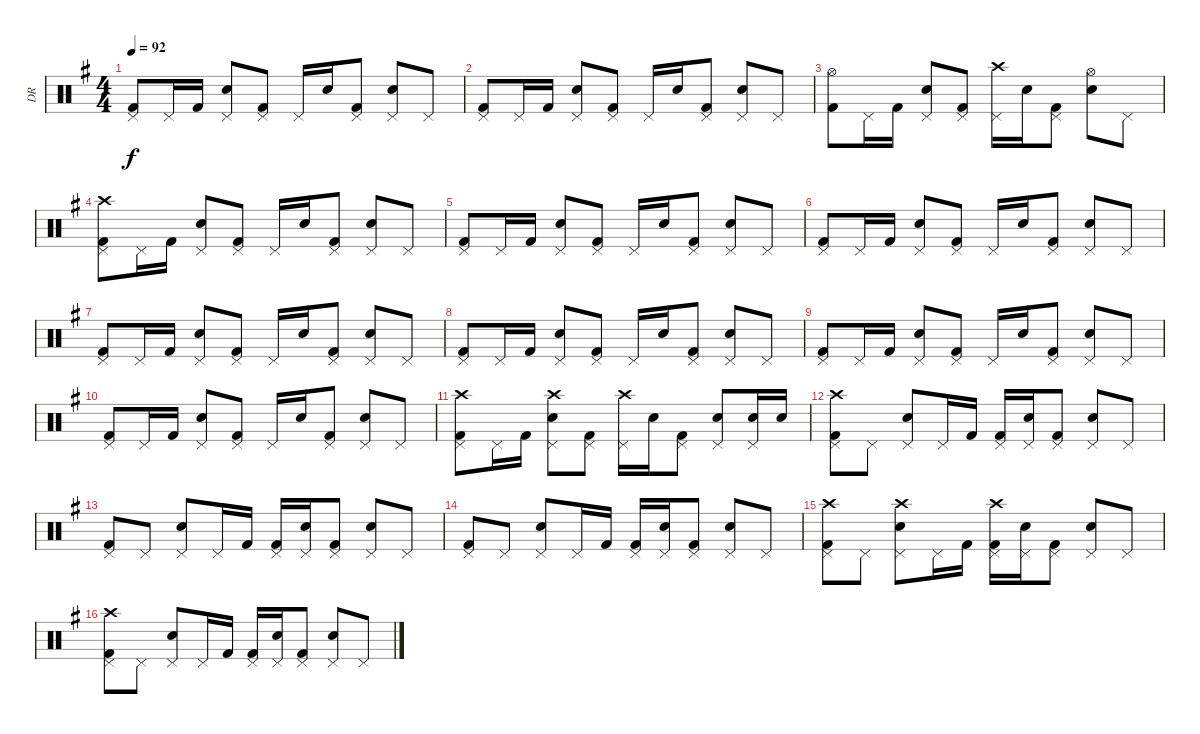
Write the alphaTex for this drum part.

\track ("DR" "DR") {instrument percussion}
\staff {score}
\articulation defaults
\ts (4 4)
\tempo 92
\clef neutral
\ks g
("Pedal Hi-Hat (hit)" "Kick (hit) 2").8{dy f} "Pedal Hi-Hat (hit)".16 "Kick (hit) 2".16 ("Pedal Hi-Hat (hit)" "Electric Snare (hit)").8 ("Pedal Hi-Hat (hit)" "Kick (hit) 2").8 "Pedal Hi-Hat (hit)".16 "Electric Snare (hit)".16 ("Pedal Hi-Hat (hit)" "Kick (hit) 2").8 ("Pedal Hi-Hat (hit)" "Electric Snare (hit)").8 "Pedal Hi-Hat (hit)".8 |
("Pedal Hi-Hat (hit)" "Kick (hit) 2").8 "Pedal Hi-Hat (hit)".16 "Kick (hit) 2".16 ("Pedal Hi-Hat (hit)" "Electric Snare (hit)").8 ("Pedal Hi-Hat (hit)" "Kick (hit) 2").8 "Pedal Hi-Hat (hit)".16 "Electric Snare (hit)".16 ("Pedal Hi-Hat (hit)" "Kick (hit) 2").8 ("Pedal Hi-Hat (hit)" "Electric Snare (hit)").8 "Pedal Hi-Hat (hit)".8 |
("Hi-Hat (open)" "Kick (hit) 2").8 "Pedal Hi-Hat (hit)".16 "Kick (hit) 2".16 ("Pedal Hi-Hat (hit)" "Electric Snare (hit)").8 ("Pedal Hi-Hat (hit)" "Kick (hit) 2").8 ("Crash high (hit)" "Pedal Hi-Hat (hit)").16 "Electric Snare (hit)".16 ("Pedal Hi-Hat (hit)" "Kick (hit) 2").8 ("Hi-Hat (open)" "Electric Snare (hit)").8 "Pedal Hi-Hat (hit)".8 |
("Crash high (hit)" "Pedal Hi-Hat (hit)" "Kick (hit) 2").8 "Pedal Hi-Hat (hit)".16 "Kick (hit) 2".16 ("Pedal Hi-Hat (hit)" "Electric Snare (hit)").8 ("Pedal Hi-Hat (hit)" "Kick (hit) 2").8 "Pedal Hi-Hat (hit)".16 "Electric Snare (hit)".16 ("Pedal Hi-Hat (hit)" "Kick (hit) 2").8 ("Pedal Hi-Hat (hit)" "Electric Snare (hit)").8 "Pedal Hi-Hat (hit)".8 |
("Pedal Hi-Hat (hit)" "Kick (hit) 2").8 "Pedal Hi-Hat (hit)".16 "Kick (hit) 2".16 ("Pedal Hi-Hat (hit)" "Electric Snare (hit)").8 ("Pedal Hi-Hat (hit)" "Kick (hit) 2").8 "Pedal Hi-Hat (hit)".16 "Electric Snare (hit)".16 ("Pedal Hi-Hat (hit)" "Kick (hit) 2").8 ("Pedal Hi-Hat (hit)" "Electric Snare (hit)").8 "Pedal Hi-Hat (hit)".8 |
("Pedal Hi-Hat (hit)" "Kick (hit) 2").8 "Pedal Hi-Hat (hit)".16 "Kick (hit) 2".16 ("Pedal Hi-Hat (hit)" "Electric Snare (hit)").8 ("Pedal Hi-Hat (hit)" "Kick (hit) 2").8 "Pedal Hi-Hat (hit)".16 "Electric Snare (hit)".16 ("Pedal Hi-Hat (hit)" "Kick (hit) 2").8 ("Pedal Hi-Hat (hit)" "Electric Snare (hit)").8 "Pedal Hi-Hat (hit)".8 |
("Pedal Hi-Hat (hit)" "Kick (hit) 2").8 "Pedal Hi-Hat (hit)".16 "Kick (hit) 2".16 ("Pedal Hi-Hat (hit)" "Electric Snare (hit)").8 ("Pedal Hi-Hat (hit)" "Kick (hit) 2").8 "Pedal Hi-Hat (hit)".16 "Electric Snare (hit)".16 ("Pedal Hi-Hat (hit)" "Kick (hit) 2").8 ("Pedal Hi-Hat (hit)" "Electric Snare (hit)").8 "Pedal Hi-Hat (hit)".8 |
("Pedal Hi-Hat (hit)" "Kick (hit) 2").8 "Pedal Hi-Hat (hit)".16 "Kick (hit) 2".16 ("Pedal Hi-Hat (hit)" "Electric Snare (hit)").8 ("Pedal Hi-Hat (hit)" "Kick (hit) 2").8 "Pedal Hi-Hat (hit)".16 "Electric Snare (hit)".16 ("Pedal Hi-Hat (hit)" "Kick (hit) 2").8 ("Pedal Hi-Hat (hit)" "Electric Snare (hit)").8 "Pedal Hi-Hat (hit)".8 |
("Pedal Hi-Hat (hit)" "Kick (hit) 2").8 "Pedal Hi-Hat (hit)".16 "Kick (hit) 2".16 ("Pedal Hi-Hat (hit)" "Electric Snare (hit)").8 ("Pedal Hi-Hat (hit)" "Kick (hit) 2").8 "Pedal Hi-Hat (hit)".16 "Electric Snare (hit)".16 ("Pedal Hi-Hat (hit)" "Kick (hit) 2").8 ("Pedal Hi-Hat (hit)" "Electric Snare (hit)").8 "Pedal Hi-Hat (hit)".8 |
("Pedal Hi-Hat (hit)" "Kick (hit) 2").8 "Pedal Hi-Hat (hit)".16 "Kick (hit) 2".16 ("Pedal Hi-Hat (hit)" "Electric Snare (hit)").8 ("Pedal Hi-Hat (hit)" "Kick (hit) 2").8 "Pedal Hi-Hat (hit)".16 "Electric Snare (hit)".16 ("Pedal Hi-Hat (hit)" "Kick (hit) 2").8 ("Pedal Hi-Hat (hit)" "Electric Snare (hit)").8 "Pedal Hi-Hat (hit)".8 |
("Crash high (hit)" "Pedal Hi-Hat (hit)" "Kick (hit) 2").8 "Pedal Hi-Hat (hit)".16 "Kick (hit) 2".16 ("Crash high (hit)" "Pedal Hi-Hat (hit)" "Electric Snare (hit)").8 ("Pedal Hi-Hat (hit)" "Kick (hit) 2").8 ("Crash high (hit)" "Pedal Hi-Hat (hit)").16 "Electric Snare (hit)".16 ("Pedal Hi-Hat (hit)" "Kick (hit) 2").8 ("Pedal Hi-Hat (hit)" "Electric Snare (hit)").8 ("Pedal Hi-Hat (hit)" "Electric Snare (hit)").16 "Electric Snare (hit)".16 |
("Crash high (hit)" "Pedal Hi-Hat (hit)" "Kick (hit) 2").8 "Pedal Hi-Hat (hit)".8 ("Pedal Hi-Hat (hit)" "Electric Snare (hit)").8 "Pedal Hi-Hat (hit)".16 "Kick (hit) 2".16 ("Pedal Hi-Hat (hit)" "Kick (hit) 2").16 ("Pedal Hi-Hat (hit)" "Electric Snare (hit)").16 ("Pedal Hi-Hat (hit)" "Kick (hit) 2").8 ("Pedal Hi-Hat (hit)" "Electric Snare (hit)").8 "Pedal Hi-Hat (hit)".8 |
("Pedal Hi-Hat (hit)" "Kick (hit) 2").8 "Pedal Hi-Hat (hit)".8 ("Pedal Hi-Hat (hit)" "Electric Snare (hit)").8 "Pedal Hi-Hat (hit)".16 "Kick (hit) 2".16 ("Pedal Hi-Hat (hit)" "Kick (hit) 2").16 ("Pedal Hi-Hat (hit)" "Electric Snare (hit)").16 ("Pedal Hi-Hat (hit)" "Kick (hit) 2").8 ("Pedal Hi-Hat (hit)" "Electric Snare (hit)").8 "Pedal Hi-Hat (hit)".8 |
("Pedal Hi-Hat (hit)" "Kick (hit) 2").8 "Pedal Hi-Hat (hit)".8 ("Pedal Hi-Hat (hit)" "Electric Snare (hit)").8 "Pedal Hi-Hat (hit)".16 "Kick (hit) 2".16 ("Pedal Hi-Hat (hit)" "Kick (hit) 2").16 ("Pedal Hi-Hat (hit)" "Electric Snare (hit)").16 ("Pedal Hi-Hat (hit)" "Kick (hit) 2").8 ("Pedal Hi-Hat (hit)" "Electric Snare (hit)").8 "Pedal Hi-Hat (hit)".8 |
("Crash high (hit)" "Pedal Hi-Hat (hit)" "Kick (hit) 2").8 "Pedal Hi-Hat (hit)".8 ("Crash high (hit)" "Pedal Hi-Hat (hit)" "Electric Snare (hit)").8 "Pedal Hi-Hat (hit)".16 "Kick (hit) 2".16 ("Crash high (hit)" "Pedal Hi-Hat (hit)" "Kick (hit) 2").16 ("Pedal Hi-Hat (hit)" "Electric Snare (hit)").16 ("Pedal Hi-Hat (hit)" "Kick (hit) 2").8 ("Pedal Hi-Hat (hit)" "Electric Snare (hit)").8 "Pedal Hi-Hat (hit)".8 |
("Crash high (hit)" "Pedal Hi-Hat (hit)" "Kick (hit) 2").8 "Pedal Hi-Hat (hit)".8 ("Pedal Hi-Hat (hit)" "Electric Snare (hit)").8 "Pedal Hi-Hat (hit)".16 "Kick (hit) 2".16 ("Pedal Hi-Hat (hit)" "Kick (hit) 2").16 ("Pedal Hi-Hat (hit)" "Electric Snare (hit)").16 ("Pedal Hi-Hat (hit)" "Kick (hit) 2").8 ("Pedal Hi-Hat (hit)" "Electric Snare (hit)").8 "Pedal Hi-Hat (hit)".8
